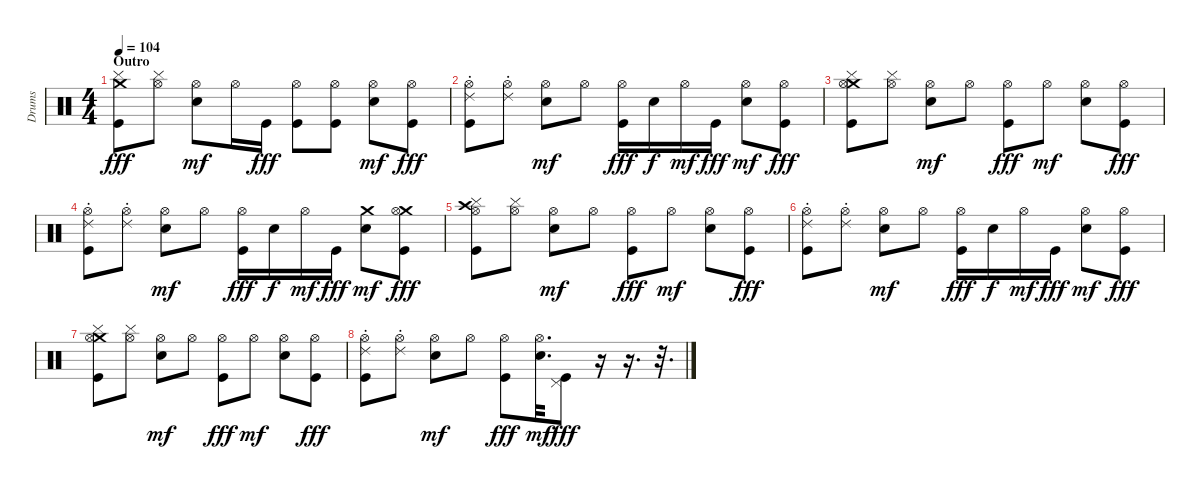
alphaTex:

\track ("Drums" "Drums") {instrument percussion}
\staff {score}
\articulation defaults
\ts (4 4)
\section ("" "Outro")
\tempo 104
\clef neutral
\ks c
("Crash medium (hit)" "Cymbal (hit)" "Kick (hit)").8{dy fff} ("Hi-Hat (open)" "Cymbal (hit)").8 ("Hi-Hat (open)" "Electric Snare (hit)").8{dy mf} "Hi-Hat (open)".16 "Kick (hit)".16{dy fff} ("Hi-Hat (open)" "Kick (hit)").8 ("Hi-Hat (open)" "Kick (hit)").8 ("Hi-Hat (open)" "Electric Snare (hit)").8{dy mf} ("Hi-Hat (open)" "Kick (hit)").8{dy fff} |
("Hi-Hat (open)" "Ride (choke) 2" "Kick (hit)").8 ("Hi-Hat (open)" "Ride (choke) 2").8 ("Hi-Hat (open)" "Electric Snare (hit)").8{dy mf} "Hi-Hat (open)".8 ("Hi-Hat (open)" "Kick (hit)").16{dy fff} "Electric Snare (hit)".16{dy f} "Hi-Hat (open)".16{dy mf} "Kick (hit)".16{dy fff} ("Hi-Hat (open)" "Electric Snare (hit)").8{dy mf} ("Hi-Hat (open)" "Kick (hit)").8{dy fff} |
("Crash medium (hit)" "Hi-Hat (open)" "Cymbal (hit)" "Kick (hit)").8 ("Hi-Hat (open)" "Cymbal (hit)").8 ("Hi-Hat (open)" "Electric Snare (hit)").8{dy mf} "Hi-Hat (open)".8 ("Hi-Hat (open)" "Kick (hit)").8{dy fff} "Hi-Hat (open)".8{dy mf} ("Hi-Hat (open)" "Electric Snare (hit)").8 ("Hi-Hat (open)" "Kick (hit)").8{dy fff} |
("Hi-Hat (open)" "Ride (choke) 2" "Kick (hit)").8 ("Hi-Hat (open)" "Ride (choke) 2").8 ("Hi-Hat (open)" "Electric Snare (hit)").8{dy mf} "Hi-Hat (open)".8 ("Hi-Hat (open)" "Kick (hit)").16{dy fff} "Electric Snare (hit)".16{dy f} "Hi-Hat (open)".16{dy mf} "Kick (hit)".16{dy fff} ("Crash medium (hit)" "Electric Snare (hit)").8{dy mf} ("Crash medium (hit)" "Hi-Hat (open)" "Kick (hit)").8{dy fff} |
("Crash high (hit)" "Hi-Hat (open)" "Cymbal (hit)" "Kick (hit)").8 ("Hi-Hat (open)" "Cymbal (hit)").8 ("Hi-Hat (open)" "Electric Snare (hit)").8{dy mf} "Hi-Hat (open)".8 ("Hi-Hat (open)" "Kick (hit)").8{dy fff} "Hi-Hat (open)".8{dy mf} ("Hi-Hat (open)" "Electric Snare (hit)").8 ("Hi-Hat (open)" "Kick (hit)").8{dy fff} |
("Hi-Hat (open)" "Ride (choke) 2" "Kick (hit)").8 ("Hi-Hat (open)" "Ride (choke) 2").8 ("Hi-Hat (open)" "Electric Snare (hit)").8{dy mf} "Hi-Hat (open)".8 ("Hi-Hat (open)" "Kick (hit)").16{dy fff} "Electric Snare (hit)".16{dy f} "Hi-Hat (open)".16{dy mf} "Kick (hit)".16{dy fff} ("Hi-Hat (open)" "Electric Snare (hit)").8{dy mf} ("Hi-Hat (open)" "Kick (hit)").8{dy fff} |
("Crash medium (hit)" "Hi-Hat (open)" "Cymbal (hit)" "Kick (hit)").8 ("Hi-Hat (open)" "Cymbal (hit)").8 ("Hi-Hat (open)" "Electric Snare (hit)").8{dy mf} "Hi-Hat (open)".8 ("Hi-Hat (open)" "Kick (hit)").8{dy fff} "Hi-Hat (open)".8{dy mf} ("Hi-Hat (open)" "Electric Snare (hit)").8 ("Hi-Hat (open)" "Kick (hit)").8{dy fff} |
("Hi-Hat (open)" "Ride (choke) 2" "Kick (hit)").8 ("Hi-Hat (open)" "Ride (choke) 2").8 ("Hi-Hat (open)" "Electric Snare (hit)").8{dy mf} "Hi-Hat (open)".8 ("Hi-Hat (open)" "Kick (hit)").8{dy fff} ("Hi-Hat (open)" "Electric Snare (hit)").32{d dy mf} ("Pedal Hi-Hat (hit)" "Kick (hit)").8{dy fff} r.16 r.16{d} r.32{d}
